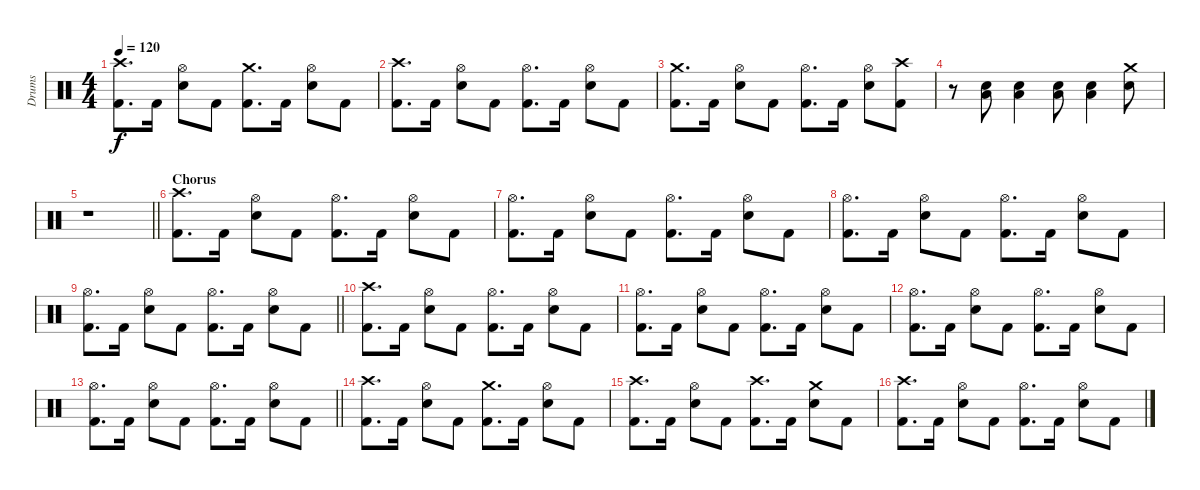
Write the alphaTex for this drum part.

\track ("Drums" "Drums") {instrument percussion}
\staff {score}
\articulation defaults
\ts (4 4)
\tempo 120
\clef neutral
\ks c
("Crash high (hit)" "Kick (hit) 2").8{d dy f} "Kick (hit) 2".16 ("Hi-Hat (open)" "Snare (hit) 2").8 "Kick (hit) 2".8 ("Crash medium (hit)" "Kick (hit) 2").8{d} "Kick (hit) 2".16 ("Hi-Hat (open)" "Snare (hit) 2").8 "Kick (hit) 2".8 |
("Crash high (hit)" "Kick (hit) 2").8{d} "Kick (hit) 2".16 ("Hi-Hat (open)" "Snare (hit) 2").8 "Kick (hit) 2".8 ("Hi-Hat (open)" "Kick (hit) 2").8{d} "Kick (hit) 2".16 ("Hi-Hat (open)" "Snare (hit) 2").8 "Kick (hit) 2".8 |
("Crash medium (hit)" "Kick (hit) 2").8{d} "Kick (hit) 2".16 ("Hi-Hat (open)" "Snare (hit) 2").8 "Kick (hit) 2".8 ("Hi-Hat (open)" "Kick (hit) 2").8{d} "Kick (hit) 2".16 ("Hi-Hat (open)" "Snare (hit) 2").8 ("Crash high (hit)" "Kick (hit) 2").8 |
r.8 ("Snare (hit) 2" "Low Tom (hit)").8 ("Snare (hit) 2" "Low Tom (hit)").4 ("Snare (hit) 2" "Low Tom (hit)").8 ("Snare (hit) 2" "Low Tom (hit)").4 ("Crash medium (hit)" "Snare (hit) 2").8 |
\barLineRight lightlight
r.1 |
\section ("" "Chorus")
("Crash high (hit)" "Kick (hit) 2").8{d} "Kick (hit) 2".16 ("Hi-Hat (open)" "Snare (hit) 2").8 "Kick (hit) 2".8 ("Hi-Hat (open)" "Kick (hit) 2").8{d} "Kick (hit) 2".16 ("Hi-Hat (open)" "Snare (hit) 2").8 "Kick (hit) 2".8 |
("Hi-Hat (open)" "Kick (hit) 2").8{d} "Kick (hit) 2".16 ("Hi-Hat (open)" "Snare (hit) 2").8 "Kick (hit) 2".8 ("Hi-Hat (open)" "Kick (hit) 2").8{d} "Kick (hit) 2".16 ("Hi-Hat (open)" "Snare (hit) 2").8 "Kick (hit) 2".8 |
("Hi-Hat (open)" "Kick (hit) 2").8{d} "Kick (hit) 2".16 ("Hi-Hat (open)" "Snare (hit) 2").8 "Kick (hit) 2".8 ("Hi-Hat (open)" "Kick (hit) 2").8{d} "Kick (hit) 2".16 ("Hi-Hat (open)" "Snare (hit) 2").8 "Kick (hit) 2".8 |
\barLineRight lightlight
("Hi-Hat (open)" "Kick (hit) 2").8{d} "Kick (hit) 2".16 ("Hi-Hat (open)" "Snare (hit) 2").8 "Kick (hit) 2".8 ("Hi-Hat (open)" "Kick (hit) 2").8{d} "Kick (hit) 2".16 ("Hi-Hat (open)" "Snare (hit) 2").8 "Kick (hit) 2".8 |
("Crash high (hit)" "Kick (hit) 2").8{d} "Kick (hit) 2".16 ("Hi-Hat (open)" "Snare (hit) 2").8 "Kick (hit) 2".8 ("Hi-Hat (open)" "Kick (hit) 2").8{d} "Kick (hit) 2".16 ("Hi-Hat (open)" "Snare (hit) 2").8 "Kick (hit) 2".8 |
("Hi-Hat (open)" "Kick (hit) 2").8{d} "Kick (hit) 2".16 ("Hi-Hat (open)" "Snare (hit) 2").8 "Kick (hit) 2".8 ("Hi-Hat (open)" "Kick (hit) 2").8{d} "Kick (hit) 2".16 ("Hi-Hat (open)" "Snare (hit) 2").8 "Kick (hit) 2".8 |
("Hi-Hat (open)" "Kick (hit) 2").8{d} "Kick (hit) 2".16 ("Hi-Hat (open)" "Snare (hit) 2").8 "Kick (hit) 2".8 ("Hi-Hat (open)" "Kick (hit) 2").8{d} "Kick (hit) 2".16 ("Hi-Hat (open)" "Snare (hit) 2").8 "Kick (hit) 2".8 |
\barLineRight lightlight
("Hi-Hat (open)" "Kick (hit) 2").8{d} "Kick (hit) 2".16 ("Hi-Hat (open)" "Snare (hit) 2").8 "Kick (hit) 2".8 ("Hi-Hat (open)" "Kick (hit) 2").8{d} "Kick (hit) 2".16 ("Hi-Hat (open)" "Snare (hit) 2").8 "Kick (hit) 2".8 |
("Crash high (hit)" "Kick (hit) 2").8{d} "Kick (hit) 2".16 ("Hi-Hat (open)" "Snare (hit) 2").8 "Kick (hit) 2".8 ("Crash medium (hit)" "Kick (hit) 2").8{d} "Kick (hit) 2".16 ("Hi-Hat (open)" "Snare (hit) 2").8 "Kick (hit) 2".8 |
("Crash high (hit)" "Kick (hit) 2").8{d} "Kick (hit) 2".16 ("Hi-Hat (open)" "Snare (hit) 2").8 "Kick (hit) 2".8 ("Crash high (hit)" "Kick (hit) 2").8{d} "Kick (hit) 2".16 ("Crash medium (hit)" "Snare (hit) 2").8 "Kick (hit) 2".8 |
("Crash high (hit)" "Kick (hit) 2").8{d} "Kick (hit) 2".16 ("Hi-Hat (open)" "Snare (hit) 2").8 "Kick (hit) 2".8 ("Hi-Hat (open)" "Kick (hit) 2").8{d} "Kick (hit) 2".16 ("Hi-Hat (open)" "Snare (hit) 2").8 "Kick (hit) 2".8
